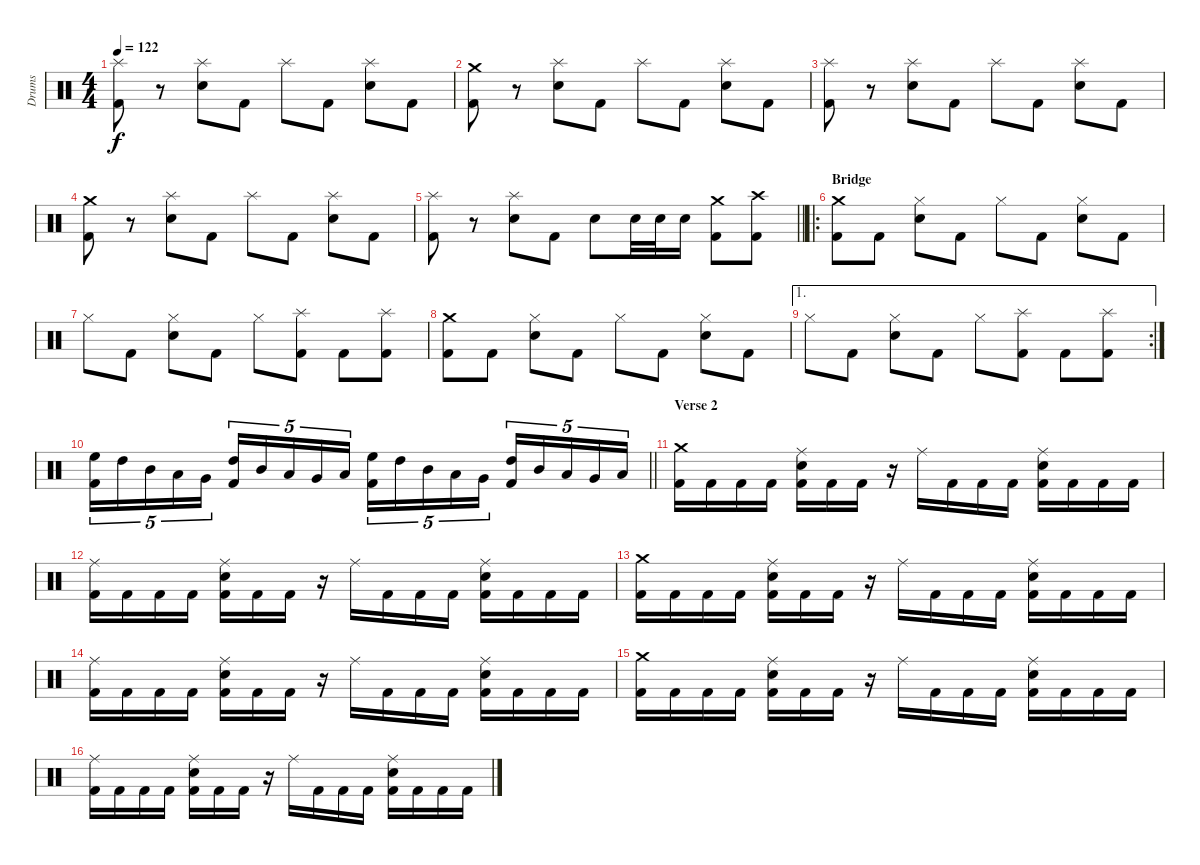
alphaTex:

\track ("Drums" "Drums") {instrument percussion}
\staff {score}
\articulation defaults
\ts (4 4)
\tempo 122
\clef neutral
\ks c
("Kick (hit) 2" "Splash (hit)").8{dy f} r.8 ("Snare (hit) 2" "Splash (hit)").8 "Kick (hit) 2".8 "Splash (hit)".8 "Kick (hit) 2".8 ("Snare (hit) 2" "Splash (hit)").8 "Kick (hit) 2".8 |
("Kick (hit) 2" "Crash medium (hit)").8 r.8 ("Snare (hit) 2" "Splash (hit)").8 "Kick (hit) 2".8 "Splash (hit)".8 "Kick (hit) 2".8 ("Snare (hit) 2" "Splash (hit)").8 "Kick (hit) 2".8 |
("Kick (hit) 2" "Splash (hit)").8 r.8 ("Snare (hit) 2" "Splash (hit)").8 "Kick (hit) 2".8 "Splash (hit)".8 "Kick (hit) 2".8 ("Snare (hit) 2" "Splash (hit)").8 "Kick (hit) 2".8 |
("Kick (hit) 2" "Crash medium (hit)").8 r.8 ("Snare (hit) 2" "Splash (hit)").8 "Kick (hit) 2".8 "Splash (hit)".8 "Kick (hit) 2".8 ("Snare (hit) 2" "Splash (hit)").8 "Kick (hit) 2".8 |
\barLineRight lightlight
("Kick (hit) 2" "Splash (hit)").8 r.8 ("Snare (hit) 2" "Splash (hit)").8 "Kick (hit) 2".8 "Snare (hit) 2".8 "Snare (hit) 2".32 "Snare (hit) 2".32 "Snare (hit) 2".16 ("Kick (hit) 2" "Crash medium (hit)").8 ("Kick (hit) 2" "Crash high (hit)").8 |
\ro
\section ("" "Bridge")
("Kick (hit) 2" "Crash medium (hit)").8 "Kick (hit) 2".8 ("Snare (hit) 2" "Hi-Hat (closed)").8 "Kick (hit) 2".8 "Hi-Hat (closed)".8 "Kick (hit) 2".8 ("Snare (hit) 2" "Hi-Hat (closed)").8 "Kick (hit) 2".8 |
"Hi-Hat (closed)".8 "Kick (hit) 2".8 ("Snare (hit) 2" "Hi-Hat (closed)").8 "Kick (hit) 2".8 "Hi-Hat (closed)".8 ("Kick (hit) 2" "Splash (hit)").8 "Kick (hit) 2".8 ("Kick (hit) 2" "Splash (hit)").8 |
("Kick (hit) 2" "Crash medium (hit)").8 "Kick (hit) 2".8 ("Snare (hit) 2" "Hi-Hat (closed)").8 "Kick (hit) 2".8 "Hi-Hat (closed)".8 "Kick (hit) 2".8 ("Snare (hit) 2" "Hi-Hat (closed)").8 "Kick (hit) 2".8 |
\ae 1
\rc 2 "Hi-Hat (closed)".8 "Kick (hit) 2".8
("Snare (hit) 2" "Hi-Hat (closed)").8 "Kick (hit) 2".8 "Hi-Hat (closed)".8 ("Kick (hit) 2" "Splash (hit)").8 "Kick (hit) 2".8 ("Kick (hit) 2" "Splash (hit)").8 |
\barLineRight lightlight
("Kick (hit) 2" "High Floor Tom (hit)").16{tu (5 4)} "High Tom (hit)".16{tu (5 4)} "Mid Tom (hit)".16{tu (5 4)} "Low Tom (hit)".16{tu (5 4)} "Very Low Tom (hit)".16{tu (5 4)} ("Kick (hit) 2" "High Tom (hit)").16{tu (5 4)} "Mid Tom (hit)".16{tu (5 4)} "Low Tom (hit)".16{tu (5 4)} "Very Low Tom (hit)".16{tu (5 4)} "Low Floor Tom (hit)".16{tu (5 4)} ("Kick (hit) 2" "High Floor Tom (hit)").16{tu (5 4)} "High Tom (hit)".16{tu (5 4)} "Mid Tom (hit)".16{tu (5 4)} "Low Tom (hit)".16{tu (5 4)} "Very Low Tom (hit)".16{tu (5 4)} ("Kick (hit) 2" "High Tom (hit)").16{tu (5 4)} "Mid Tom (hit)".16{tu (5 4)} "Low Tom (hit)".16{tu (5 4)} "Very Low Tom (hit)".16{tu (5 4)} "Low Floor Tom (hit)".16{tu (5 4)} |
\section ("" "Verse 2")
("Kick (hit) 2" "Crash medium (hit)").16 "Kick (hit) 2".16 "Kick (hit) 2".16 "Kick (hit) 2".16 ("Kick (hit) 2" "Snare (hit) 2" "Ride (middle)").16 "Kick (hit) 2".16 "Kick (hit) 2".16 r.16 "Ride (middle)".16 "Kick (hit) 2".16 "Kick (hit) 2".16 "Kick (hit) 2".16 ("Kick (hit) 2" "Snare (hit) 2" "Ride (middle)").16 "Kick (hit) 2".16 "Kick (hit) 2".16 "Kick (hit) 2".16 |
("Kick (hit) 2" "Ride (middle)").16 "Kick (hit) 2".16 "Kick (hit) 2".16 "Kick (hit) 2".16 ("Kick (hit) 2" "Snare (hit) 2" "Ride (middle)").16 "Kick (hit) 2".16 "Kick (hit) 2".16 r.16 "Ride (middle)".16 "Kick (hit) 2".16 "Kick (hit) 2".16 "Kick (hit) 2".16 ("Kick (hit) 2" "Snare (hit) 2" "Ride (middle)").16 "Kick (hit) 2".16 "Kick (hit) 2".16 "Kick (hit) 2".16 |
("Kick (hit) 2" "Crash medium (hit)").16 "Kick (hit) 2".16 "Kick (hit) 2".16 "Kick (hit) 2".16 ("Kick (hit) 2" "Snare (hit) 2" "Ride (middle)").16 "Kick (hit) 2".16 "Kick (hit) 2".16 r.16 "Ride (middle)".16 "Kick (hit) 2".16 "Kick (hit) 2".16 "Kick (hit) 2".16 ("Kick (hit) 2" "Snare (hit) 2" "Ride (middle)").16 "Kick (hit) 2".16 "Kick (hit) 2".16 "Kick (hit) 2".16 |
("Kick (hit) 2" "Ride (middle)").16 "Kick (hit) 2".16 "Kick (hit) 2".16 "Kick (hit) 2".16 ("Kick (hit) 2" "Snare (hit) 2" "Ride (middle)").16 "Kick (hit) 2".16 "Kick (hit) 2".16 r.16 "Ride (middle)".16 "Kick (hit) 2".16 "Kick (hit) 2".16 "Kick (hit) 2".16 ("Kick (hit) 2" "Snare (hit) 2" "Ride (middle)").16 "Kick (hit) 2".16 "Kick (hit) 2".16 "Kick (hit) 2".16 |
("Kick (hit) 2" "Crash medium (hit)").16 "Kick (hit) 2".16 "Kick (hit) 2".16 "Kick (hit) 2".16 ("Kick (hit) 2" "Snare (hit) 2" "Ride (middle)").16 "Kick (hit) 2".16 "Kick (hit) 2".16 r.16 "Ride (middle)".16 "Kick (hit) 2".16 "Kick (hit) 2".16 "Kick (hit) 2".16 ("Kick (hit) 2" "Snare (hit) 2" "Ride (middle)").16 "Kick (hit) 2".16 "Kick (hit) 2".16 "Kick (hit) 2".16 |
("Kick (hit) 2" "Ride (middle)").16 "Kick (hit) 2".16 "Kick (hit) 2".16 "Kick (hit) 2".16 ("Kick (hit) 2" "Snare (hit) 2" "Ride (middle)").16 "Kick (hit) 2".16 "Kick (hit) 2".16 r.16 "Ride (middle)".16 "Kick (hit) 2".16 "Kick (hit) 2".16 "Kick (hit) 2".16 ("Kick (hit) 2" "Snare (hit) 2" "Ride (middle)").16 "Kick (hit) 2".16 "Kick (hit) 2".16 "Kick (hit) 2".16
